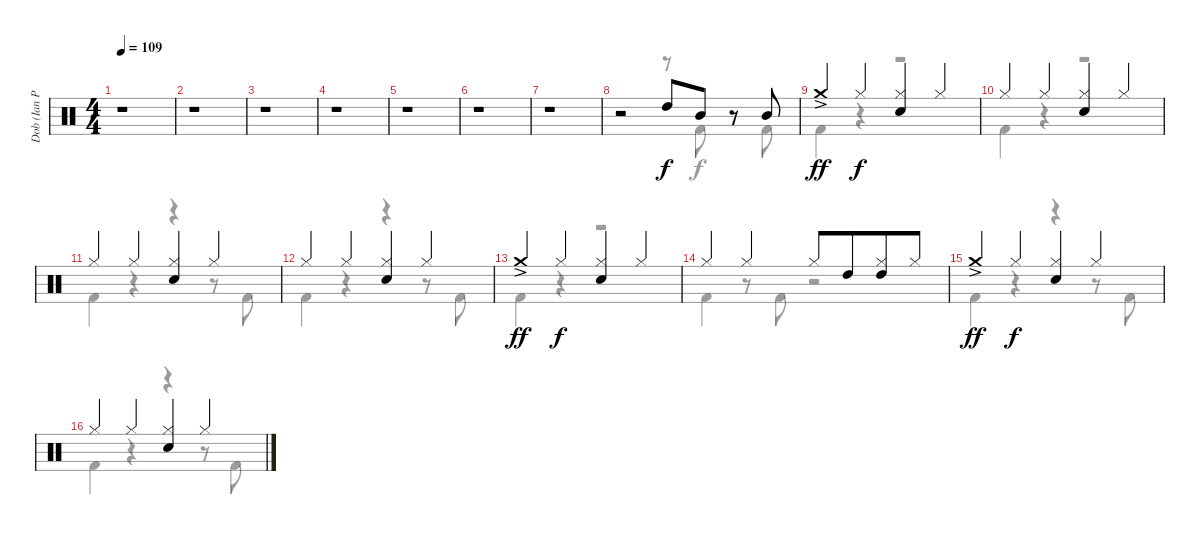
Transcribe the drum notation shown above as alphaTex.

\track ("Dob (Ian Paice)" "Dob (Ian P") {instrument percussion}
\staff {score}
\articulation defaults
\voice
\ts (4 4)
\tempo 109
\clef neutral
\ks c
r.1{dy f} |
r.1 |
r.1 |
r.1 |
r.1 |
r.1 |
r.1 |
r.2 "High Tom (hit)".8 "Mid Tom (hit)".8 r.8 "Mid Tom (hit)".8 |
"Crash medium (hit)"{ac}.4{dy ff} "Hi-Hat (closed)".4{dy f} ("Hi-Hat (closed)" "Electric Snare (hit)").4 "Hi-Hat (closed)".4 |
"Hi-Hat (closed)".4 "Hi-Hat (closed)".4 ("Hi-Hat (closed)" "Electric Snare (hit)").4 "Hi-Hat (closed)".4 |
"Hi-Hat (closed)".4 "Hi-Hat (closed)".4 ("Hi-Hat (closed)" "Electric Snare (hit)").4 "Hi-Hat (closed)".4 |
"Hi-Hat (closed)".4 "Hi-Hat (closed)".4 ("Hi-Hat (closed)" "Electric Snare (hit)").4 "Hi-Hat (closed)".4 |
"Crash medium (hit)"{ac}.4{dy ff} "Hi-Hat (closed)".4{dy f} ("Hi-Hat (closed)" "Electric Snare (hit)").4 "Hi-Hat (closed)".4 |
"Hi-Hat (closed)".4 "Hi-Hat (closed)".4 "Hi-Hat (closed)".8 "High Tom (hit)".8{beam merge} ("Hi-Hat (closed)" "High Tom (hit)").8 "Hi-Hat (closed)".8 |
"Crash medium (hit)"{ac}.4{dy ff} "Hi-Hat (closed)".4{dy f} ("Hi-Hat (closed)" "Electric Snare (hit)").4 "Hi-Hat (closed)".4 |
"Hi-Hat (closed)".4 "Hi-Hat (closed)".4 ("Hi-Hat (closed)" "Electric Snare (hit)").4 "Hi-Hat (closed)".4
\voice
\clef neutral
\ottava regular
\simile none
\ks c
|
|
|
|
|
|
|
r.2 r.8 "Kick (hit) 2".8 r.8 "Kick (hit) 2".8 |
"Kick (hit) 2".4 r.4 r.2 |
"Kick (hit) 2".4 r.4 r.2 |
"Kick (hit) 2".4 r.4 r.4 r.8 "Kick (hit) 2".8 |
"Kick (hit) 2".4 r.4 r.4 r.8 "Kick (hit) 2".8 |
"Kick (hit) 2".4 r.4 r.2 |
"Kick (hit) 2".4 r.8 "Kick (hit) 2".8 r.2 |
"Kick (hit) 2".4 r.4 r.4 r.8 "Kick (hit) 2".8 |
"Kick (hit) 2".4 r.4 r.4 r.8 "Kick (hit) 2".8
